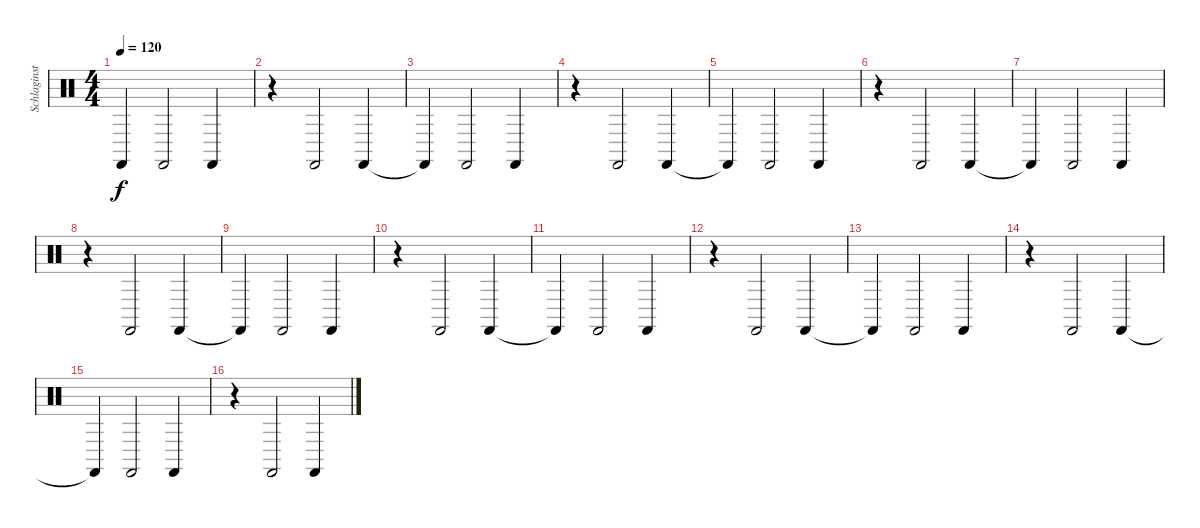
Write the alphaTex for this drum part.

\track ("Schlaginstrumente - Auswahl" "Schlaginst") {instrument percussion}
\staff {score}
\articulation defaults
\ts (4 4)
\tempo 120
\clef neutral
\ks c "Castanets (hit)"{t}.4{dy f} "Castanets (hit)".2 "Castanets (hit)".4
|
r.4 "Castanets (hit)".2 "Castanets (hit)".4 |
"Castanets (hit)"{t}.4 "Castanets (hit)".2 "Castanets (hit)".4 |
r.4 "Castanets (hit)".2 "Castanets (hit)".4 |
"Castanets (hit)"{t}.4 "Castanets (hit)".2 "Castanets (hit)".4 |
r.4 "Castanets (hit)".2 "Castanets (hit)".4 |
"Castanets (hit)"{t}.4 "Castanets (hit)".2 "Castanets (hit)".4 |
r.4 "Castanets (hit)".2 "Castanets (hit)".4 |
"Castanets (hit)"{t}.4 "Castanets (hit)".2 "Castanets (hit)".4 |
r.4 "Castanets (hit)".2 "Castanets (hit)".4 |
"Castanets (hit)"{t}.4 "Castanets (hit)".2 "Castanets (hit)".4 |
r.4 "Castanets (hit)".2 "Castanets (hit)".4 |
"Castanets (hit)"{t}.4 "Castanets (hit)".2 "Castanets (hit)".4 |
r.4 "Castanets (hit)".2 "Castanets (hit)".4 |
"Castanets (hit)"{t}.4 "Castanets (hit)".2 "Castanets (hit)".4 |
r.4 "Castanets (hit)".2 "Castanets (hit)".4
